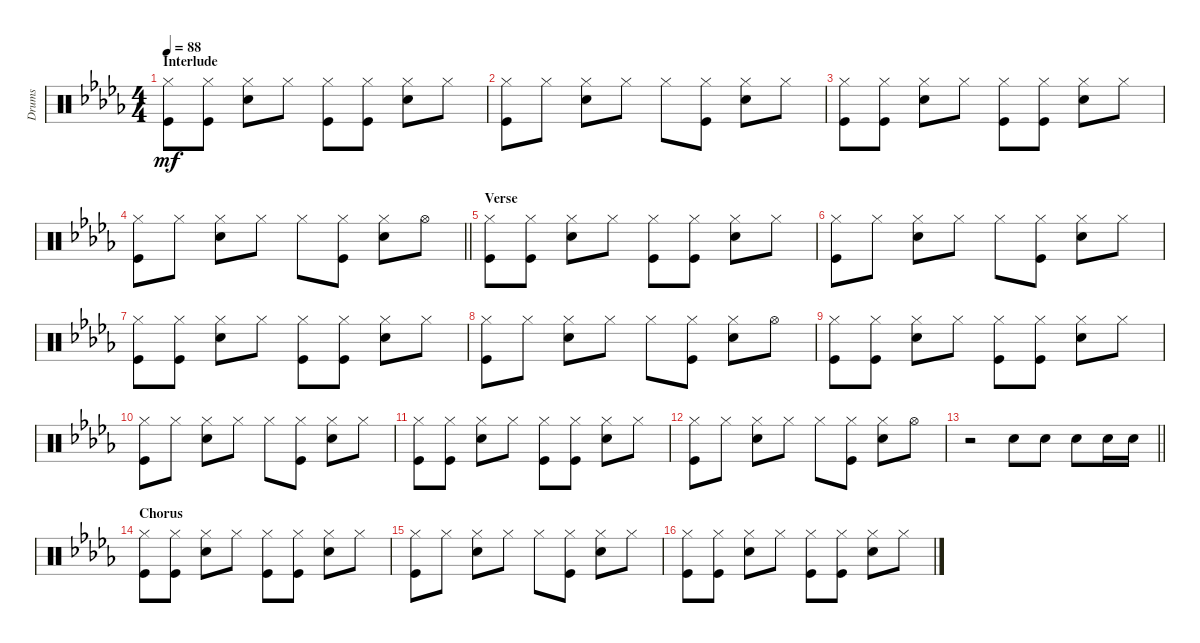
\track ("Drums" "Drums") {instrument percussion}
\staff {score}
\articulation defaults
\ts (4 4)
\section ("" "Interlude")
\tempo 88
\clef neutral
\ks bbminor
("Hi-Hat (closed)" "Kick (hit)").8{dy mf} ("Hi-Hat (closed)" "Kick (hit)").8 ("Hi-Hat (closed)" "Electric Snare (hit)").8 "Hi-Hat (closed)".8 ("Hi-Hat (closed)" "Kick (hit)").8 ("Hi-Hat (closed)" "Kick (hit)").8 ("Hi-Hat (closed)" "Electric Snare (hit)").8 "Hi-Hat (closed)".8 |
("Hi-Hat (closed)" "Kick (hit)").8 "Hi-Hat (closed)".8 ("Hi-Hat (closed)" "Electric Snare (hit)").8 "Hi-Hat (closed)".8 "Hi-Hat (closed)".8 ("Hi-Hat (closed)" "Kick (hit)").8 ("Hi-Hat (closed)" "Electric Snare (hit)").8 "Hi-Hat (closed)".8 |
("Hi-Hat (closed)" "Kick (hit)").8 ("Hi-Hat (closed)" "Kick (hit)").8 ("Hi-Hat (closed)" "Electric Snare (hit)").8 "Hi-Hat (closed)".8 ("Hi-Hat (closed)" "Kick (hit)").8 ("Hi-Hat (closed)" "Kick (hit)").8 ("Hi-Hat (closed)" "Electric Snare (hit)").8 "Hi-Hat (closed)".8 |
\barLineRight lightlight
("Hi-Hat (closed)" "Kick (hit)").8 "Hi-Hat (closed)".8 ("Hi-Hat (closed)" "Electric Snare (hit)").8 "Hi-Hat (closed)".8 "Hi-Hat (closed)".8 ("Hi-Hat (closed)" "Kick (hit)").8 ("Hi-Hat (closed)" "Electric Snare (hit)").8 "Hi-Hat (open)".8 |
\section ("" "Verse")
("Hi-Hat (closed)" "Kick (hit)").8 ("Hi-Hat (closed)" "Kick (hit)").8 ("Hi-Hat (closed)" "Electric Snare (hit)").8 "Hi-Hat (closed)".8 ("Hi-Hat (closed)" "Kick (hit)").8 ("Hi-Hat (closed)" "Kick (hit)").8 ("Hi-Hat (closed)" "Electric Snare (hit)").8 "Hi-Hat (closed)".8 |
("Hi-Hat (closed)" "Kick (hit)").8 "Hi-Hat (closed)".8 ("Hi-Hat (closed)" "Electric Snare (hit)").8 "Hi-Hat (closed)".8 "Hi-Hat (closed)".8 ("Hi-Hat (closed)" "Kick (hit)").8 ("Hi-Hat (closed)" "Electric Snare (hit)").8 "Hi-Hat (closed)".8 |
("Hi-Hat (closed)" "Kick (hit)").8 ("Hi-Hat (closed)" "Kick (hit)").8 ("Hi-Hat (closed)" "Electric Snare (hit)").8 "Hi-Hat (closed)".8 ("Hi-Hat (closed)" "Kick (hit)").8 ("Hi-Hat (closed)" "Kick (hit)").8 ("Hi-Hat (closed)" "Electric Snare (hit)").8 "Hi-Hat (closed)".8 |
("Hi-Hat (closed)" "Kick (hit)").8 "Hi-Hat (closed)".8 ("Hi-Hat (closed)" "Electric Snare (hit)").8 "Hi-Hat (closed)".8 "Hi-Hat (closed)".8 ("Hi-Hat (closed)" "Kick (hit)").8 ("Hi-Hat (closed)" "Electric Snare (hit)").8 "Hi-Hat (open)".8 |
("Hi-Hat (closed)" "Kick (hit)").8 ("Hi-Hat (closed)" "Kick (hit)").8 ("Hi-Hat (closed)" "Electric Snare (hit)").8 "Hi-Hat (closed)".8 ("Hi-Hat (closed)" "Kick (hit)").8 ("Hi-Hat (closed)" "Kick (hit)").8 ("Hi-Hat (closed)" "Electric Snare (hit)").8 "Hi-Hat (closed)".8 |
("Hi-Hat (closed)" "Kick (hit)").8 "Hi-Hat (closed)".8 ("Hi-Hat (closed)" "Electric Snare (hit)").8 "Hi-Hat (closed)".8 "Hi-Hat (closed)".8 ("Hi-Hat (closed)" "Kick (hit)").8 ("Hi-Hat (closed)" "Electric Snare (hit)").8 "Hi-Hat (closed)".8 |
("Hi-Hat (closed)" "Kick (hit)").8 ("Hi-Hat (closed)" "Kick (hit)").8 ("Hi-Hat (closed)" "Electric Snare (hit)").8 "Hi-Hat (closed)".8 ("Hi-Hat (closed)" "Kick (hit)").8 ("Hi-Hat (closed)" "Kick (hit)").8 ("Hi-Hat (closed)" "Electric Snare (hit)").8 "Hi-Hat (closed)".8 |
("Hi-Hat (closed)" "Kick (hit)").8 "Hi-Hat (closed)".8 ("Hi-Hat (closed)" "Electric Snare (hit)").8 "Hi-Hat (closed)".8 "Hi-Hat (closed)".8 ("Hi-Hat (closed)" "Kick (hit)").8 ("Hi-Hat (closed)" "Electric Snare (hit)").8 "Hi-Hat (open)".8 |
\barLineRight lightlight
r.2 "Electric Snare (hit)".8 "Electric Snare (hit)".8 "Electric Snare (hit)".8 "Electric Snare (hit)".16 "Electric Snare (hit)".16 |
\section ("" "Chorus")
("Hi-Hat (closed)" "Kick (hit)").8 ("Hi-Hat (closed)" "Kick (hit)").8 ("Hi-Hat (closed)" "Electric Snare (hit)").8 "Hi-Hat (closed)".8 ("Hi-Hat (closed)" "Kick (hit)").8 ("Hi-Hat (closed)" "Kick (hit)").8 ("Hi-Hat (closed)" "Electric Snare (hit)").8 "Hi-Hat (closed)".8 |
("Hi-Hat (closed)" "Kick (hit)").8 "Hi-Hat (closed)".8 ("Hi-Hat (closed)" "Electric Snare (hit)").8 "Hi-Hat (closed)".8 "Hi-Hat (closed)".8 ("Hi-Hat (closed)" "Kick (hit)").8 ("Hi-Hat (closed)" "Electric Snare (hit)").8 "Hi-Hat (closed)".8 |
("Hi-Hat (closed)" "Kick (hit)").8 ("Hi-Hat (closed)" "Kick (hit)").8 ("Hi-Hat (closed)" "Electric Snare (hit)").8 "Hi-Hat (closed)".8 ("Hi-Hat (closed)" "Kick (hit)").8 ("Hi-Hat (closed)" "Kick (hit)").8 ("Hi-Hat (closed)" "Electric Snare (hit)").8 "Hi-Hat (closed)".8
